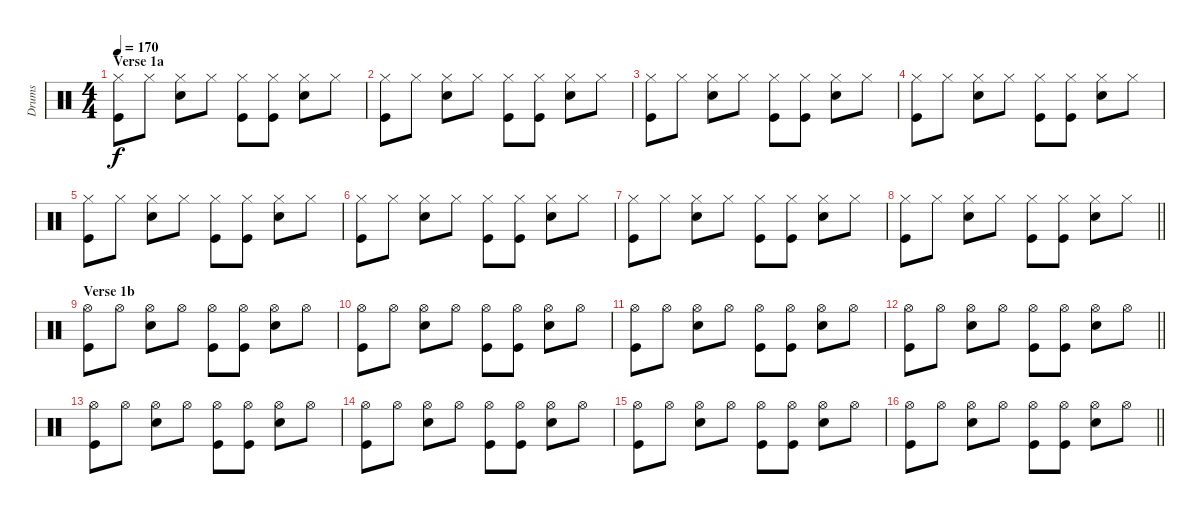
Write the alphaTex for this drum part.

\track ("Drums" "Drums") {instrument percussion}
\staff {score}
\articulation defaults
\ts (4 4)
\section ("" "Verse 1a")
\tempo 170
\clef neutral
\ks c
("Hi-Hat (closed)" "Kick (hit)").8{dy f} "Hi-Hat (closed)".8 ("Hi-Hat (closed)" "Snare (hit) 2").8 "Hi-Hat (closed)".8 ("Hi-Hat (closed)" "Kick (hit)").8 ("Hi-Hat (closed)" "Kick (hit)").8 ("Hi-Hat (closed)" "Snare (hit) 2").8 "Hi-Hat (closed)".8 |
("Hi-Hat (closed)" "Kick (hit)").8 "Hi-Hat (closed)".8 ("Hi-Hat (closed)" "Snare (hit) 2").8 "Hi-Hat (closed)".8 ("Hi-Hat (closed)" "Kick (hit)").8 ("Hi-Hat (closed)" "Kick (hit)").8 ("Hi-Hat (closed)" "Snare (hit) 2").8 "Hi-Hat (closed)".8 |
("Hi-Hat (closed)" "Kick (hit)").8 "Hi-Hat (closed)".8 ("Hi-Hat (closed)" "Snare (hit) 2").8 "Hi-Hat (closed)".8 ("Hi-Hat (closed)" "Kick (hit)").8 ("Hi-Hat (closed)" "Kick (hit)").8 ("Hi-Hat (closed)" "Snare (hit) 2").8 "Hi-Hat (closed)".8 |
("Hi-Hat (closed)" "Kick (hit)").8 "Hi-Hat (closed)".8 ("Hi-Hat (closed)" "Snare (hit) 2").8 "Hi-Hat (closed)".8 ("Hi-Hat (closed)" "Kick (hit)").8 ("Hi-Hat (closed)" "Kick (hit)").8 ("Hi-Hat (closed)" "Snare (hit) 2").8 "Hi-Hat (closed)".8 |
("Hi-Hat (closed)" "Kick (hit)").8 "Hi-Hat (closed)".8 ("Hi-Hat (closed)" "Snare (hit) 2").8 "Hi-Hat (closed)".8 ("Hi-Hat (closed)" "Kick (hit)").8 ("Hi-Hat (closed)" "Kick (hit)").8 ("Hi-Hat (closed)" "Snare (hit) 2").8 "Hi-Hat (closed)".8 |
("Hi-Hat (closed)" "Kick (hit)").8 "Hi-Hat (closed)".8 ("Hi-Hat (closed)" "Snare (hit) 2").8 "Hi-Hat (closed)".8 ("Hi-Hat (closed)" "Kick (hit)").8 ("Hi-Hat (closed)" "Kick (hit)").8 ("Hi-Hat (closed)" "Snare (hit) 2").8 "Hi-Hat (closed)".8 |
("Hi-Hat (closed)" "Kick (hit)").8 "Hi-Hat (closed)".8 ("Hi-Hat (closed)" "Snare (hit) 2").8 "Hi-Hat (closed)".8 ("Hi-Hat (closed)" "Kick (hit)").8 ("Hi-Hat (closed)" "Kick (hit)").8 ("Hi-Hat (closed)" "Snare (hit) 2").8 "Hi-Hat (closed)".8 |
\barLineRight lightlight
("Hi-Hat (closed)" "Kick (hit)").8 "Hi-Hat (closed)".8 ("Hi-Hat (closed)" "Snare (hit) 2").8 "Hi-Hat (closed)".8 ("Hi-Hat (closed)" "Kick (hit)").8 ("Hi-Hat (closed)" "Kick (hit)").8 ("Hi-Hat (closed)" "Snare (hit) 2").8 "Hi-Hat (closed)".8 |
\section ("" "Verse 1b")
("Hi-Hat (open)" "Kick (hit)").8 "Hi-Hat (open)".8 ("Hi-Hat (open)" "Snare (hit) 2").8 "Hi-Hat (open)".8 ("Hi-Hat (open)" "Kick (hit)").8 ("Hi-Hat (open)" "Kick (hit)").8 ("Hi-Hat (open)" "Snare (hit) 2").8 "Hi-Hat (open)".8 |
("Hi-Hat (open)" "Kick (hit)").8 "Hi-Hat (open)".8 ("Hi-Hat (open)" "Snare (hit) 2").8 "Hi-Hat (open)".8 ("Hi-Hat (open)" "Kick (hit)").8 ("Hi-Hat (open)" "Kick (hit)").8 ("Hi-Hat (open)" "Snare (hit) 2").8 "Hi-Hat (open)".8 |
("Hi-Hat (open)" "Kick (hit)").8 "Hi-Hat (open)".8 ("Hi-Hat (open)" "Snare (hit) 2").8 "Hi-Hat (open)".8 ("Hi-Hat (open)" "Kick (hit)").8 ("Hi-Hat (open)" "Kick (hit)").8 ("Hi-Hat (open)" "Snare (hit) 2").8 "Hi-Hat (open)".8 |
\barLineRight lightlight
("Hi-Hat (open)" "Kick (hit)").8 "Hi-Hat (open)".8 ("Hi-Hat (open)" "Snare (hit) 2").8 "Hi-Hat (open)".8 ("Hi-Hat (open)" "Kick (hit)").8 ("Hi-Hat (open)" "Kick (hit)").8 ("Hi-Hat (open)" "Snare (hit) 2").8 "Hi-Hat (open)".8 |
("Hi-Hat (open)" "Kick (hit)").8 "Hi-Hat (open)".8 ("Hi-Hat (open)" "Snare (hit) 2").8 "Hi-Hat (open)".8 ("Hi-Hat (open)" "Kick (hit)").8 ("Hi-Hat (open)" "Kick (hit)").8 ("Hi-Hat (open)" "Snare (hit) 2").8 "Hi-Hat (open)".8 |
("Hi-Hat (open)" "Kick (hit)").8 "Hi-Hat (open)".8 ("Hi-Hat (open)" "Snare (hit) 2").8 "Hi-Hat (open)".8 ("Hi-Hat (open)" "Kick (hit)").8 ("Hi-Hat (open)" "Kick (hit)").8 ("Hi-Hat (open)" "Snare (hit) 2").8 "Hi-Hat (open)".8 |
("Hi-Hat (open)" "Kick (hit)").8 "Hi-Hat (open)".8 ("Hi-Hat (open)" "Snare (hit) 2").8 "Hi-Hat (open)".8 ("Hi-Hat (open)" "Kick (hit)").8 ("Hi-Hat (open)" "Kick (hit)").8 ("Hi-Hat (open)" "Snare (hit) 2").8 "Hi-Hat (open)".8 |
\barLineRight lightlight
("Hi-Hat (open)" "Kick (hit)").8 "Hi-Hat (open)".8 ("Hi-Hat (open)" "Snare (hit) 2").8 "Hi-Hat (open)".8 ("Hi-Hat (open)" "Kick (hit)").8 ("Hi-Hat (open)" "Kick (hit)").8 ("Hi-Hat (open)" "Snare (hit) 2").8 "Hi-Hat (open)".8
